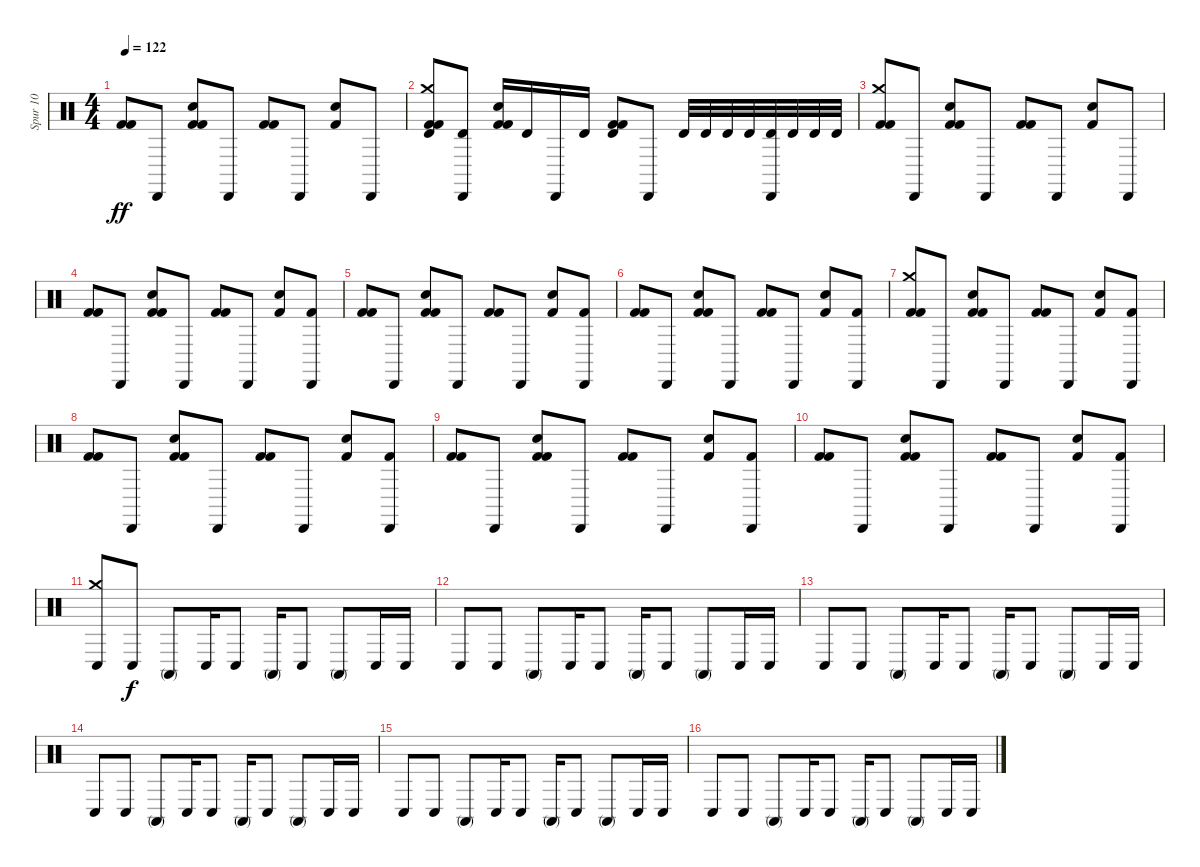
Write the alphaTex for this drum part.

\track ("Spur 10" "Spur 10") {instrument percussion}
\staff {score}
\articulation defaults
\ts (4 4)
\tempo 122
\clef neutral
\ks c
("Kick (hit) 2" "Kick (hit) 2").8{dy ff} "Cabasa (hit)".8 ("Kick (hit) 2" "Kick (hit) 2" "Hand Clap (hit)").8 "Cabasa (hit)".8 ("Kick (hit) 2" "Kick (hit) 2").8 "Cabasa (hit)".8 ("Hand Clap (hit)" "Kick (hit) 2").8 "Cabasa (hit)".8 |
("Kick (hit) 2" "Kick (hit) 2" "Timbale high (hit)" "Crash medium (hit)").8 ("Cabasa (hit)" "Timbale high (hit)").8 ("Kick (hit) 2" "Kick (hit) 2" "Hand Clap (hit)").16 "Timbale high (hit)".16 "Cabasa (hit)".16 "Timbale high (hit)".16 ("Kick (hit) 2" "Kick (hit) 2" "Timbale high (hit)").8 "Cabasa (hit)".8 "Timbale high (hit)".32 "Timbale high (hit)".32 "Timbale high (hit)".32 "Timbale high (hit)".32 ("Cabasa (hit)" "Timbale high (hit)").32 "Timbale high (hit)".32 "Timbale high (hit)".32 "Timbale high (hit)".32 |
("Kick (hit) 2" "Kick (hit) 2" "Crash medium (hit)").8 "Cabasa (hit)".8 ("Kick (hit) 2" "Kick (hit) 2" "Hand Clap (hit)").8 "Cabasa (hit)".8 ("Kick (hit) 2" "Kick (hit) 2").8 "Cabasa (hit)".8 ("Hand Clap (hit)" "Kick (hit) 2").8 "Cabasa (hit)".8 |
("Kick (hit) 2" "Kick (hit) 2").8 "Cabasa (hit)".8 ("Kick (hit) 2" "Kick (hit) 2" "Hand Clap (hit)").8 "Cabasa (hit)".8 ("Kick (hit) 2" "Kick (hit) 2").8 "Cabasa (hit)".8 ("Hand Clap (hit)" "Kick (hit) 2").8 ("Cabasa (hit)" "Kick (hit) 2").8 |
("Kick (hit) 2" "Kick (hit) 2").8 "Cabasa (hit)".8 ("Kick (hit) 2" "Kick (hit) 2" "Hand Clap (hit)").8 "Cabasa (hit)".8 ("Kick (hit) 2" "Kick (hit) 2").8 "Cabasa (hit)".8 ("Hand Clap (hit)" "Kick (hit) 2").8 ("Cabasa (hit)" "Kick (hit) 2").8 |
("Kick (hit) 2" "Kick (hit) 2").8 "Cabasa (hit)".8 ("Kick (hit) 2" "Kick (hit) 2" "Hand Clap (hit)").8 "Cabasa (hit)".8 ("Kick (hit) 2" "Kick (hit) 2").8 "Cabasa (hit)".8 ("Hand Clap (hit)" "Kick (hit) 2").8 ("Cabasa (hit)" "Kick (hit) 2").8 |
("Kick (hit) 2" "Kick (hit) 2" "Crash medium (hit)").8 "Cabasa (hit)".8 ("Kick (hit) 2" "Kick (hit) 2" "Hand Clap (hit)").8 "Cabasa (hit)".8 ("Kick (hit) 2" "Kick (hit) 2").8 "Cabasa (hit)".8 ("Hand Clap (hit)" "Kick (hit) 2").8 ("Cabasa (hit)" "Kick (hit) 2").8 |
("Kick (hit) 2" "Kick (hit) 2").8 "Cabasa (hit)".8 ("Kick (hit) 2" "Kick (hit) 2" "Hand Clap (hit)").8 "Cabasa (hit)".8 ("Kick (hit) 2" "Kick (hit) 2").8 "Cabasa (hit)".8 ("Hand Clap (hit)" "Kick (hit) 2").8 ("Cabasa (hit)" "Kick (hit) 2").8 |
("Kick (hit) 2" "Kick (hit) 2").8 "Cabasa (hit)".8 ("Kick (hit) 2" "Kick (hit) 2" "Hand Clap (hit)").8 "Cabasa (hit)".8 ("Kick (hit) 2" "Kick (hit) 2").8 "Cabasa (hit)".8 ("Hand Clap (hit)" "Kick (hit) 2").8 ("Cabasa (hit)" "Kick (hit) 2").8 |
("Kick (hit) 2" "Kick (hit) 2").8 "Cabasa (hit)".8 ("Kick (hit) 2" "Kick (hit) 2" "Hand Clap (hit)").8 "Cabasa (hit)".8 ("Kick (hit) 2" "Kick (hit) 2").8 "Cabasa (hit)".8 ("Hand Clap (hit)" "Kick (hit) 2").8 ("Cabasa (hit)" "Kick (hit) 2").8 |
("Conga low (hit)" "Crash medium (hit)").8 "Conga low (hit)".8{dy f} "Conga high (mute)".8 "Conga low (hit)".16 "Conga low (hit)".8 "Conga high (mute)".16 "Conga low (hit)".8 "Conga high (mute)".8 "Conga low (hit)".16 "Conga low (hit)".16 |
"Conga low (hit)".8 "Conga low (hit)".8 "Conga high (mute)".8 "Conga low (hit)".16 "Conga low (hit)".8 "Conga high (mute)".16 "Conga low (hit)".8 "Conga high (mute)".8 "Conga low (hit)".16 "Conga low (hit)".16 |
"Conga low (hit)".8 "Conga low (hit)".8 "Conga high (mute)".8 "Conga low (hit)".16 "Conga low (hit)".8 "Conga high (mute)".16 "Conga low (hit)".8 "Conga high (mute)".8 "Conga low (hit)".16 "Conga low (hit)".16 |
"Conga low (hit)".8 "Conga low (hit)".8 "Conga high (mute)".8 "Conga low (hit)".16 "Conga low (hit)".8 "Conga high (mute)".16 "Conga low (hit)".8 "Conga high (mute)".8 "Conga low (hit)".16 "Conga low (hit)".16 |
"Conga low (hit)".8 "Conga low (hit)".8 "Conga high (mute)".8 "Conga low (hit)".16 "Conga low (hit)".8 "Conga high (mute)".16 "Conga low (hit)".8 "Conga high (mute)".8 "Conga low (hit)".16 "Conga low (hit)".16 |
"Conga low (hit)".8 "Conga low (hit)".8 "Conga high (mute)".8 "Conga low (hit)".16 "Conga low (hit)".8 "Conga high (mute)".16 "Conga low (hit)".8 "Conga high (mute)".8 "Conga low (hit)".16 "Conga low (hit)".16
